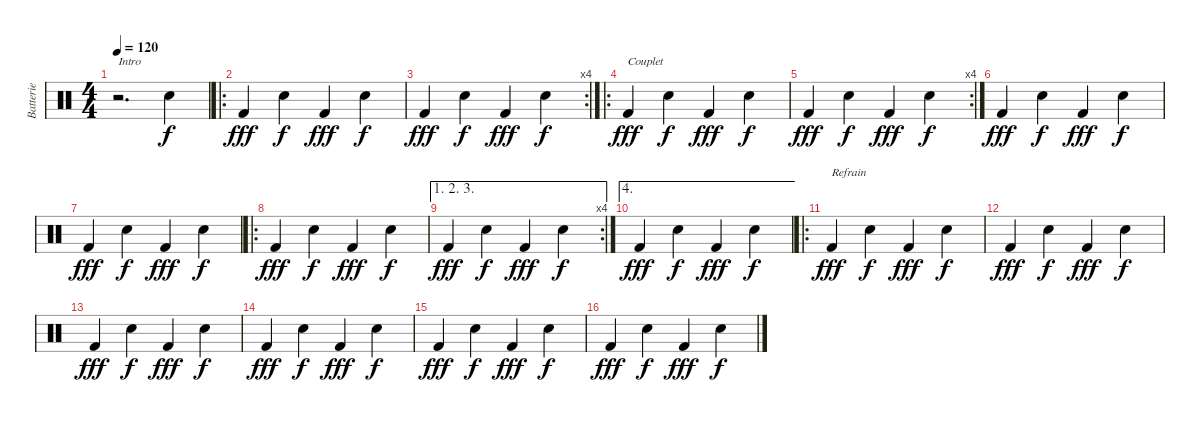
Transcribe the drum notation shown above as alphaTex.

\track ("Batterie" "Batterie") {instrument percussion}
\staff {score}
\articulation defaults
\ts (4 4)
\tempo 120
\clef neutral
\ks c
r.2{d txt "Intro" dy f} "Electric Snare (hit)".4 |
\ro "Kick (hit) 2".4{dy fff} "Electric Snare (hit)".4{dy f} "Kick (hit) 2".4{dy fff} "Electric Snare (hit)".4{dy f}
|
\rc 4 "Kick (hit) 2".4{dy fff} "Electric Snare (hit)".4{dy f} "Kick (hit) 2".4{dy fff} "Electric Snare (hit)".4{dy f}
|
\ro "Kick (hit) 2".4{txt "Couplet" dy fff} "Electric Snare (hit)".4{dy f} "Kick (hit) 2".4{dy fff} "Electric Snare (hit)".4{dy f}
|
\rc 4 "Kick (hit) 2".4{dy fff} "Electric Snare (hit)".4{dy f} "Kick (hit) 2".4{dy fff} "Electric Snare (hit)".4{dy f}
|
"Kick (hit) 2".4{dy fff} "Electric Snare (hit)".4{dy f} "Kick (hit) 2".4{dy fff} "Electric Snare (hit)".4{dy f} |
"Kick (hit) 2".4{dy fff} "Electric Snare (hit)".4{dy f} "Kick (hit) 2".4{dy fff} "Electric Snare (hit)".4{dy f} |
\ro "Kick (hit) 2".4{dy fff} "Electric Snare (hit)".4{dy f} "Kick (hit) 2".4{dy fff} "Electric Snare (hit)".4{dy f}
|
\ae (1 2 3)
\rc 4 "Kick (hit) 2".4{dy fff} "Electric Snare (hit)".4{dy f} "Kick (hit) 2".4{dy fff} "Electric Snare (hit)".4{dy f}
|
\ae 4 "Kick (hit) 2".4{dy fff} "Electric Snare (hit)".4{dy f} "Kick (hit) 2".4{dy fff} "Electric Snare (hit)".4{dy f}
|
\ro "Kick (hit) 2".4{txt "Refrain" dy fff} "Electric Snare (hit)".4{dy f} "Kick (hit) 2".4{dy fff} "Electric Snare (hit)".4{dy f}
|
"Kick (hit) 2".4{dy fff} "Electric Snare (hit)".4{dy f} "Kick (hit) 2".4{dy fff} "Electric Snare (hit)".4{dy f} |
"Kick (hit) 2".4{dy fff} "Electric Snare (hit)".4{dy f} "Kick (hit) 2".4{dy fff} "Electric Snare (hit)".4{dy f} |
"Kick (hit) 2".4{dy fff} "Electric Snare (hit)".4{dy f} "Kick (hit) 2".4{dy fff} "Electric Snare (hit)".4{dy f} |
"Kick (hit) 2".4{dy fff} "Electric Snare (hit)".4{dy f} "Kick (hit) 2".4{dy fff} "Electric Snare (hit)".4{dy f} |
"Kick (hit) 2".4{dy fff} "Electric Snare (hit)".4{dy f} "Kick (hit) 2".4{dy fff} "Electric Snare (hit)".4{dy f}
